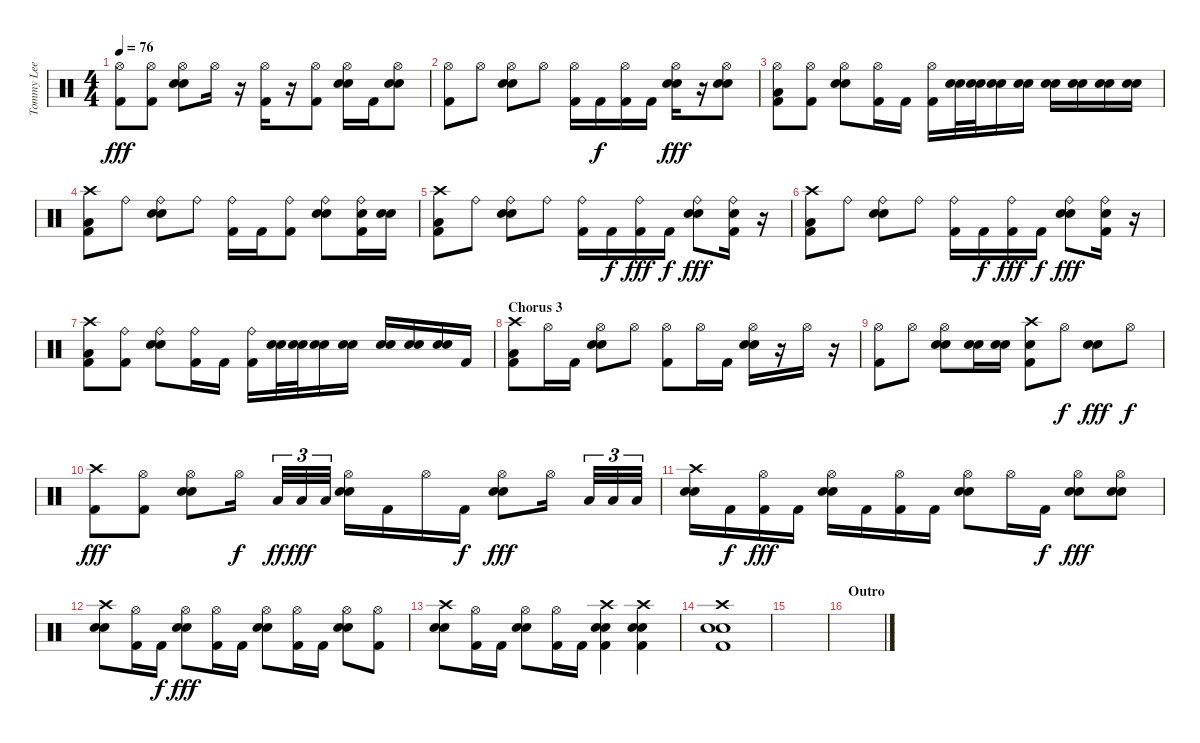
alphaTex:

\track ("Tommy Lee" "Tommy Lee") {instrument percussion}
\staff {score}
\articulation defaults
\ts (4 4)
\tempo 76
\clef neutral
\ks c
("Hi-Hat (open)" "Kick (hit) 2").8{dy fff} ("Hi-Hat (open)" "Kick (hit) 2").8 ("Hi-Hat (open)" "Snare (hit) 2" "Electric Snare (hit)").8 "Hi-Hat (open)".16 r.16 ("Hi-Hat (open)" "Kick (hit) 2").16 r.16 ("Hi-Hat (open)" "Kick (hit) 2").8 ("Hi-Hat (open)" "Snare (hit) 2" "Electric Snare (hit)").16 "Kick (hit) 2".16 ("Hi-Hat (open)" "Snare (hit) 2" "Electric Snare (hit)").8 |
("Hi-Hat (open)" "Kick (hit) 2").8 "Hi-Hat (open)".8 ("Hi-Hat (open)" "Snare (hit) 2" "Electric Snare (hit)").8 "Hi-Hat (open)".8 ("Hi-Hat (open)" "Kick (hit) 2").16 "Kick (hit) 2".16{dy f} ("Hi-Hat (open)" "Kick (hit) 2").16 "Kick (hit) 2".16 ("Hi-Hat (open)" "Snare (hit) 2" "Electric Snare (hit)").16{dy fff} r.16 ("Hi-Hat (open)" "Snare (hit) 2" "Electric Snare (hit)").8 |
("Hi-Hat (open)" "Low Floor Tom (hit)" "Kick (hit) 2").8 ("Hi-Hat (open)" "Kick (hit) 2").8 ("Hi-Hat (open)" "Snare (hit) 2" "Electric Snare (hit)").8 ("Hi-Hat (open)" "Kick (hit) 2").16 "Kick (hit) 2".16 ("Hi-Hat (open)" "Kick (hit) 2").16 ("Snare (hit) 2" "Electric Snare (hit)").32 ("Snare (hit) 2" "Electric Snare (hit)").32 ("Snare (hit) 2" "Electric Snare (hit)").16 ("Snare (hit) 2" "Electric Snare (hit)").16 ("Snare (hit) 2" "Electric Snare (hit)").16 ("Snare (hit) 2" "Electric Snare (hit)").16 ("Snare (hit) 2" "Electric Snare (hit)").16 ("Snare (hit) 2" "Electric Snare (hit)").16 |
("Crash high (hit)" "Low Floor Tom (hit)" "Kick (hit) 2").8 "Ride (bell)".8 ("Ride (bell)" "Snare (hit) 2" "Electric Snare (hit)").8 "Ride (bell)".8 ("Ride (bell)" "Kick (hit) 2").16 "Kick (hit) 2".16 ("Ride (bell)" "Kick (hit) 2").8 ("Ride (bell)" "Snare (hit) 2" "Electric Snare (hit)").8 ("Ride (bell)" "Snare (hit) 2" "Kick (hit) 2").16 ("Snare (hit) 2" "Electric Snare (hit)").16 |
("Crash high (hit)" "Low Floor Tom (hit)" "Kick (hit) 2").8 "Ride (bell)".8 ("Ride (bell)" "Snare (hit) 2" "Electric Snare (hit)").8 "Ride (bell)".8 ("Ride (bell)" "Kick (hit) 2").16 "Kick (hit) 2".16{dy f} ("Ride (bell)" "Kick (hit) 2").16{dy fff} "Kick (hit) 2".16{dy f} ("Ride (bell)" "Snare (hit) 2" "Electric Snare (hit)").8{dy fff} ("Ride (bell)" "Snare (hit) 2" "Kick (hit) 2").16 r.16 |
("Crash high (hit)" "Low Floor Tom (hit)" "Kick (hit) 2").8 "Ride (bell)".8 ("Ride (bell)" "Snare (hit) 2" "Electric Snare (hit)").8 "Ride (bell)".8 ("Ride (bell)" "Kick (hit) 2").16 "Kick (hit) 2".16{dy f} ("Ride (bell)" "Kick (hit) 2").16{dy fff} "Kick (hit) 2".16{dy f} ("Ride (bell)" "Snare (hit) 2" "Electric Snare (hit)").8{dy fff} ("Ride (bell)" "Snare (hit) 2" "Kick (hit) 2").16 r.16 |
("Crash high (hit)" "Low Floor Tom (hit)" "Kick (hit) 2").8 ("Ride (bell)" "Kick (hit) 2").8 ("Ride (bell)" "Snare (hit) 2" "Electric Snare (hit)").8 ("Ride (bell)" "Kick (hit) 2").16 "Kick (hit) 2".16 ("Ride (bell)" "Kick (hit) 2").16 ("Snare (hit) 2" "Electric Snare (hit)").32 ("Snare (hit) 2" "Electric Snare (hit)").32 ("Snare (hit) 2" "Electric Snare (hit)").16 ("Snare (hit) 2" "Electric Snare (hit)").16 ("Snare (hit) 2" "Electric Snare (hit)").16 ("Snare (hit) 2" "Electric Snare (hit)").16 ("Snare (hit) 2" "Electric Snare (hit)").16 "Kick (hit) 2".16 |
\section ("" "Chorus 3")
("Crash high (hit)" "Low Floor Tom (hit)" "Kick (hit) 2").8 "Hi-Hat (open)".16 "Kick (hit) 2".16 ("Hi-Hat (open)" "Snare (hit) 2" "Electric Snare (hit)").8 "Hi-Hat (open)".8 ("Hi-Hat (open)" "Kick (hit) 2").8 "Hi-Hat (open)".16 "Kick (hit) 2".16 ("Hi-Hat (open)" "Snare (hit) 2" "Electric Snare (hit)").16 r.16 "Hi-Hat (open)".16 r.16 |
("Hi-Hat (open)" "Kick (hit) 2").8 "Hi-Hat (open)".8 ("Hi-Hat (open)" "Snare (hit) 2" "Electric Snare (hit)").8 ("Snare (hit) 2" "Electric Snare (hit)").16 ("Snare (hit) 2" "Electric Snare (hit)").16 ("Crash high (hit)" "Snare (hit) 2" "Kick (hit) 2").8 "Hi-Hat (open)".8{dy f} ("Snare (hit) 2" "Electric Snare (hit)").8{dy fff} "Hi-Hat (open)".8{dy f} |
("Crash high (hit)" "Kick (hit) 2").8{dy fff} ("Hi-Hat (open)" "Kick (hit) 2").8 ("Hi-Hat (open)" "Snare (hit) 2" "Electric Snare (hit)").8 "Hi-Hat (open)".16{dy f} "Low Floor Tom (hit)".32{tu (3 2) dy ff} "Low Floor Tom (hit)".32{tu (3 2) dy fff} "Low Floor Tom (hit)".32{tu (3 2)} ("Hi-Hat (open)" "Snare (hit) 2" "Electric Snare (hit)").16 "Kick (hit) 2".16 "Hi-Hat (open)".16 "Kick (hit) 2".16{dy f} ("Hi-Hat (open)" "Snare (hit) 2" "Electric Snare (hit)").8{dy fff} "Hi-Hat (open)".16 "Low Floor Tom (hit)".32{tu (3 2)} "Low Floor Tom (hit)".32{tu (3 2)} "Low Floor Tom (hit)".32{tu (3 2)} |
("Crash high (hit)" "Snare (hit) 2" "Electric Snare (hit)").16 "Kick (hit) 2".16{dy f} ("Hi-Hat (open)" "Kick (hit) 2").16{dy fff} "Kick (hit) 2".16 ("Hi-Hat (open)" "Snare (hit) 2" "Electric Snare (hit)").16 "Kick (hit) 2".16 ("Hi-Hat (open)" "Kick (hit) 2").16 "Kick (hit) 2".16 ("Hi-Hat (open)" "Snare (hit) 2" "Electric Snare (hit)").8 "Hi-Hat (open)".16 "Kick (hit) 2".16{dy f} ("Hi-Hat (open)" "Snare (hit) 2" "Electric Snare (hit)").8{dy fff} ("Hi-Hat (open)" "Snare (hit) 2" "Electric Snare (hit)").8 |
("Crash high (hit)" "Electric Snare (hit)" "Snare (hit) 2").8 ("Hi-Hat (open)" "Kick (hit) 2").16 "Kick (hit) 2".16{dy f} ("Hi-Hat (open)" "Snare (hit) 2" "Electric Snare (hit)").8{dy fff} ("Hi-Hat (open)" "Kick (hit) 2").16 "Kick (hit) 2".16 ("Hi-Hat (open)" "Electric Snare (hit)" "Snare (hit) 2").8 ("Hi-Hat (open)" "Kick (hit) 2").16 "Kick (hit) 2".16 ("Hi-Hat (open)" "Snare (hit) 2" "Electric Snare (hit)").8 ("Hi-Hat (open)" "Kick (hit) 2").8 |
("Crash high (hit)" "Electric Snare (hit)" "Snare (hit) 2").8 ("Hi-Hat (open)" "Kick (hit) 2").16 "Kick (hit) 2".16 ("Hi-Hat (open)" "Snare (hit) 2" "Electric Snare (hit)").8 ("Hi-Hat (open)" "Kick (hit) 2").16 "Kick (hit) 2".16 ("Crash high (hit)" "Snare (hit) 2" "Electric Snare (hit)" "Kick (hit) 2").4 ("Crash high (hit)" "Kick (hit) 2" "Snare (hit) 2" "Electric Snare (hit)").4 |
("Crash high (hit)" "Snare (hit) 2" "Electric Snare (hit)" "Kick (hit) 2").1 |
|
\section ("" "Outro")
